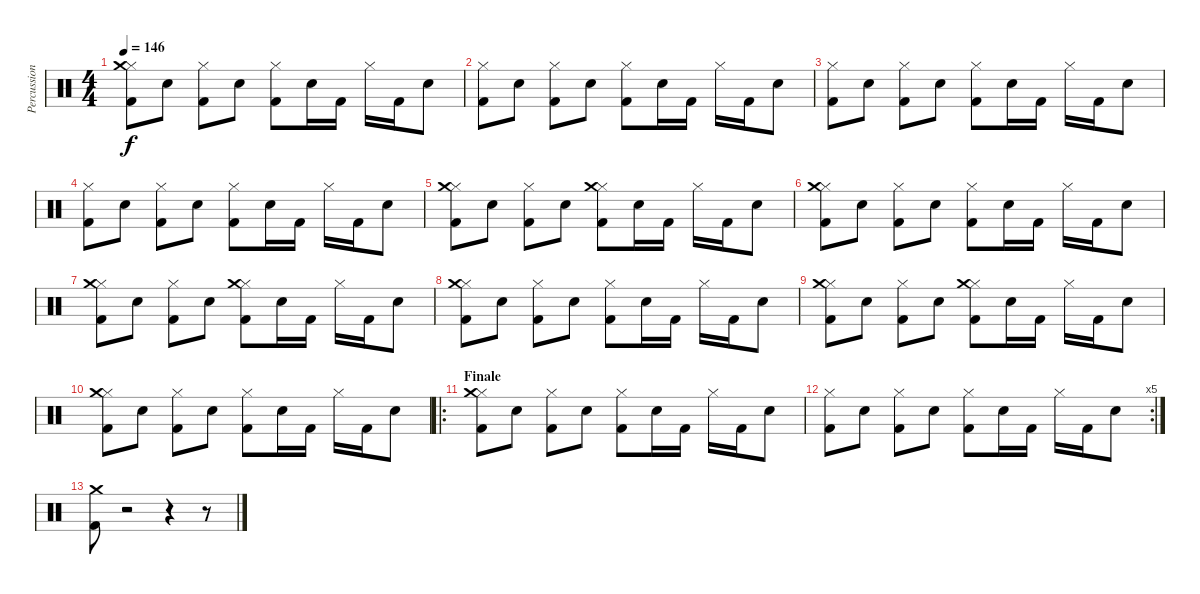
\track ("Percussions" "Percussion") {instrument percussion}
\staff {score}
\articulation defaults
\ts (4 4)
\tempo 146
\clef neutral
\ks c
("Hi-Hat (closed)" "Crash medium (hit)" "Kick (hit) 2").8{dy f} "Electric Snare (hit)".8 ("Hi-Hat (closed)" "Kick (hit) 2").8 "Electric Snare (hit)".8 ("Hi-Hat (closed)" "Kick (hit) 2").8 "Electric Snare (hit)".16 "Kick (hit) 2".16 "Hi-Hat (closed)".16 "Kick (hit) 2".16 "Electric Snare (hit)".8 |
("Hi-Hat (closed)" "Kick (hit) 2").8 "Electric Snare (hit)".8 ("Hi-Hat (closed)" "Kick (hit) 2").8 "Electric Snare (hit)".8 ("Hi-Hat (closed)" "Kick (hit) 2").8 "Electric Snare (hit)".16 "Kick (hit) 2".16 "Hi-Hat (closed)".16 "Kick (hit) 2".16 "Electric Snare (hit)".8 |
("Hi-Hat (closed)" "Kick (hit) 2").8 "Electric Snare (hit)".8 ("Hi-Hat (closed)" "Kick (hit) 2").8 "Electric Snare (hit)".8 ("Hi-Hat (closed)" "Kick (hit) 2").8 "Electric Snare (hit)".16 "Kick (hit) 2".16 "Hi-Hat (closed)".16 "Kick (hit) 2".16 "Electric Snare (hit)".8 |
("Hi-Hat (closed)" "Kick (hit) 2").8 "Electric Snare (hit)".8 ("Hi-Hat (closed)" "Kick (hit) 2").8 "Electric Snare (hit)".8 ("Hi-Hat (closed)" "Kick (hit) 2").8 "Electric Snare (hit)".16 "Kick (hit) 2".16 "Hi-Hat (closed)".16 "Kick (hit) 2".16 "Electric Snare (hit)".8 |
("Hi-Hat (closed)" "Crash medium (hit)" "Kick (hit) 2").8 "Electric Snare (hit)".8 ("Hi-Hat (closed)" "Kick (hit) 2").8 "Electric Snare (hit)".8 ("Hi-Hat (closed)" "Crash medium (hit)" "Kick (hit) 2").8 "Electric Snare (hit)".16 "Kick (hit) 2".16 "Hi-Hat (closed)".16 "Kick (hit) 2".16 "Electric Snare (hit)".8 |
("Hi-Hat (closed)" "Crash medium (hit)" "Kick (hit) 2").8 "Electric Snare (hit)".8 ("Hi-Hat (closed)" "Kick (hit) 2").8 "Electric Snare (hit)".8 ("Hi-Hat (closed)" "Kick (hit) 2").8 "Electric Snare (hit)".16 "Kick (hit) 2".16 "Hi-Hat (closed)".16 "Kick (hit) 2".16 "Electric Snare (hit)".8 |
("Hi-Hat (closed)" "Crash medium (hit)" "Kick (hit) 2").8 "Electric Snare (hit)".8 ("Hi-Hat (closed)" "Kick (hit) 2").8 "Electric Snare (hit)".8 ("Hi-Hat (closed)" "Crash medium (hit)" "Kick (hit) 2").8 "Electric Snare (hit)".16 "Kick (hit) 2".16 "Hi-Hat (closed)".16 "Kick (hit) 2".16 "Electric Snare (hit)".8 |
("Hi-Hat (closed)" "Crash medium (hit)" "Kick (hit) 2").8 "Electric Snare (hit)".8 ("Hi-Hat (closed)" "Kick (hit) 2").8 "Electric Snare (hit)".8 ("Hi-Hat (closed)" "Kick (hit) 2").8 "Electric Snare (hit)".16 "Kick (hit) 2".16 "Hi-Hat (closed)".16 "Kick (hit) 2".16 "Electric Snare (hit)".8 |
("Hi-Hat (closed)" "Crash medium (hit)" "Kick (hit) 2").8 "Electric Snare (hit)".8 ("Hi-Hat (closed)" "Kick (hit) 2").8 "Electric Snare (hit)".8 ("Hi-Hat (closed)" "Crash medium (hit)" "Kick (hit) 2").8 "Electric Snare (hit)".16 "Kick (hit) 2".16 "Hi-Hat (closed)".16 "Kick (hit) 2".16 "Electric Snare (hit)".8 |
("Hi-Hat (closed)" "Crash medium (hit)" "Kick (hit) 2").8 "Electric Snare (hit)".8 ("Hi-Hat (closed)" "Kick (hit) 2").8 "Electric Snare (hit)".8 ("Hi-Hat (closed)" "Kick (hit) 2").8 "Electric Snare (hit)".16 "Kick (hit) 2".16 "Hi-Hat (closed)".16 "Kick (hit) 2".16 "Electric Snare (hit)".8 |
\ro
\section ("" "Finale")
("Hi-Hat (closed)" "Crash medium (hit)" "Kick (hit) 2").8 "Electric Snare (hit)".8 ("Hi-Hat (closed)" "Kick (hit) 2").8 "Electric Snare (hit)".8 ("Hi-Hat (closed)" "Kick (hit) 2").8 "Electric Snare (hit)".16 "Kick (hit) 2".16 "Hi-Hat (closed)".16 "Kick (hit) 2".16 "Electric Snare (hit)".8 |
\rc 5
("Hi-Hat (closed)" "Kick (hit) 2").8 "Electric Snare (hit)".8 ("Hi-Hat (closed)" "Kick (hit) 2").8 "Electric Snare (hit)".8 ("Hi-Hat (closed)" "Kick (hit) 2").8 "Electric Snare (hit)".16 "Kick (hit) 2".16 "Hi-Hat (closed)".16 "Kick (hit) 2".16 "Electric Snare (hit)".8 |
("Crash medium (hit)" "Kick (hit) 2").8 r.2 r.4 r.8
